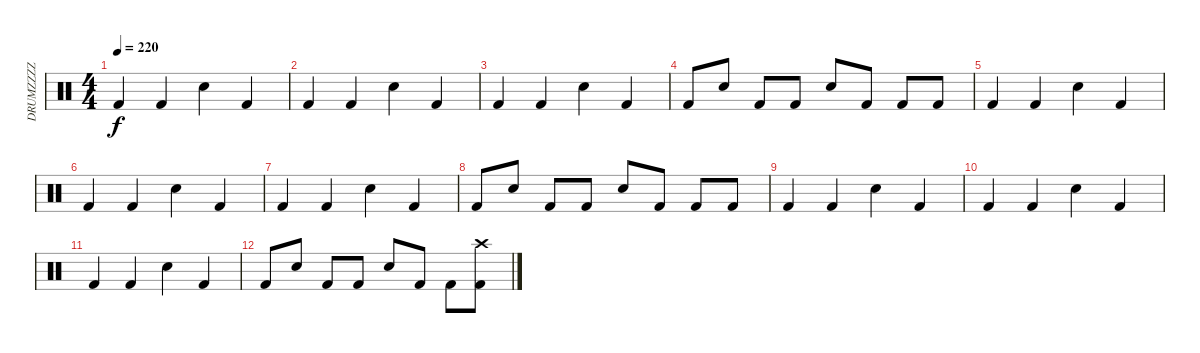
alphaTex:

\track ("DRUMZZZZ" "DRUMZZZZ") {instrument percussion}
\staff {score}
\articulation defaults
\ts (4 4)
\tempo 220
\clef neutral
\ks c "Kick (hit) 2".4{dy f} "Kick (hit) 2".4 "Electric Snare (hit)".4 "Kick (hit) 2".4
|
"Kick (hit) 2".4 "Kick (hit) 2".4 "Electric Snare (hit)".4 "Kick (hit) 2".4 |
"Kick (hit) 2".4 "Kick (hit) 2".4 "Electric Snare (hit)".4 "Kick (hit) 2".4 |
"Kick (hit) 2".8 "Electric Snare (hit)".8 "Kick (hit) 2".8 "Kick (hit) 2".8 "Electric Snare (hit)".8 "Kick (hit) 2".8 "Kick (hit) 2".8 "Kick (hit) 2".8 |
"Kick (hit) 2".4 "Kick (hit) 2".4 "Electric Snare (hit)".4 "Kick (hit) 2".4 |
"Kick (hit) 2".4 "Kick (hit) 2".4 "Electric Snare (hit)".4 "Kick (hit) 2".4 |
"Kick (hit) 2".4 "Kick (hit) 2".4 "Electric Snare (hit)".4 "Kick (hit) 2".4 |
"Kick (hit) 2".8 "Electric Snare (hit)".8 "Kick (hit) 2".8 "Kick (hit) 2".8 "Electric Snare (hit)".8 "Kick (hit) 2".8 "Kick (hit) 2".8 "Kick (hit) 2".8 |
"Kick (hit) 2".4 "Kick (hit) 2".4 "Electric Snare (hit)".4 "Kick (hit) 2".4 |
"Kick (hit) 2".4 "Kick (hit) 2".4 "Electric Snare (hit)".4 "Kick (hit) 2".4 |
"Kick (hit) 2".4 "Kick (hit) 2".4 "Electric Snare (hit)".4 "Kick (hit) 2".4 |
"Kick (hit) 2".8 "Electric Snare (hit)".8 "Kick (hit) 2".8 "Kick (hit) 2".8 "Electric Snare (hit)".8 "Kick (hit) 2".8 "Kick (hit) 2".8 ("Crash high (hit)" "Kick (hit) 2").8
